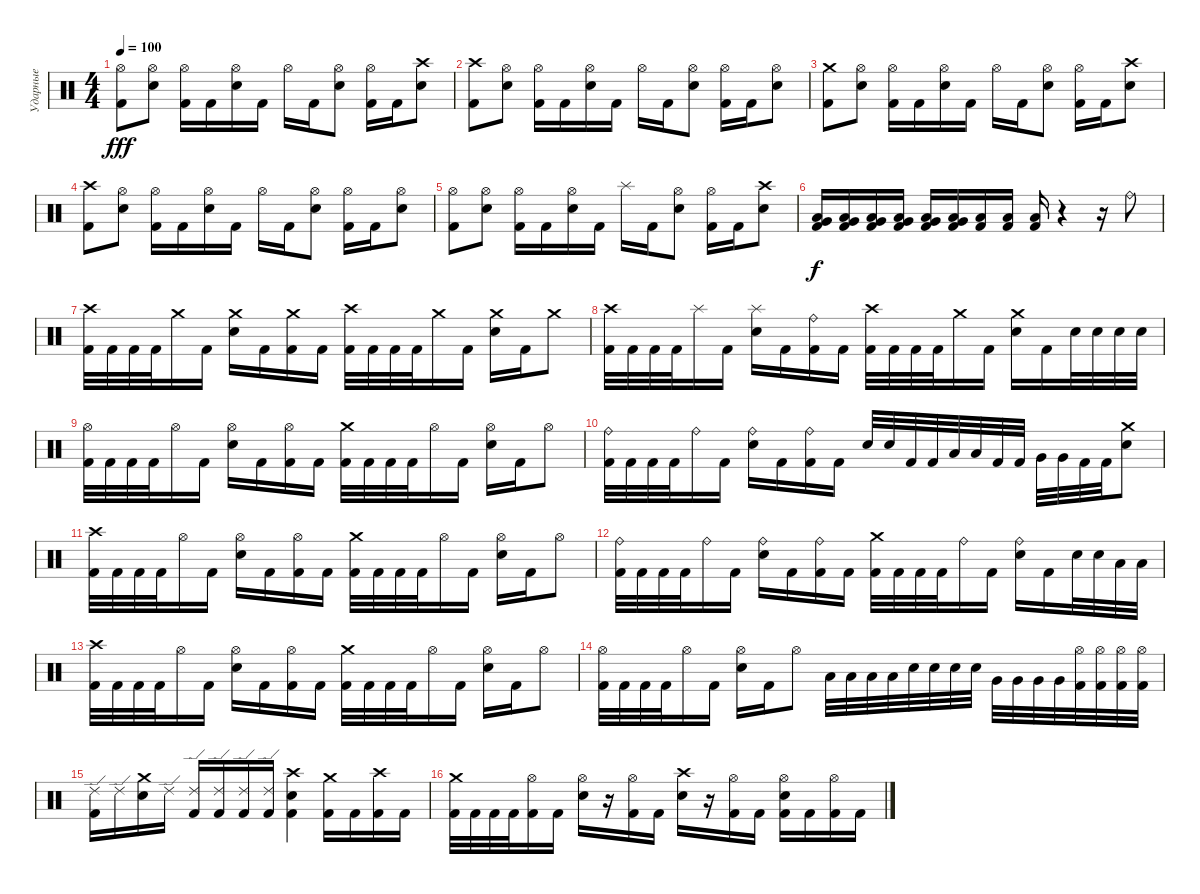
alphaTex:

\track ("Ударные" "Ударные") {instrument percussion}
\staff {score}
\articulation defaults
\ts (4 4)
\tempo 100
\clef neutral
\ks c
("Hi-Hat (open)" "Kick (hit) 2").8{dy fff} ("Hi-Hat (open)" "Snare (hit) 2").8 ("Hi-Hat (open)" "Kick (hit) 2").16 "Kick (hit) 2".16 ("Hi-Hat (open)" "Snare (hit) 2").16 "Kick (hit) 2".16 "Hi-Hat (open)".16 "Kick (hit) 2".16 ("Hi-Hat (open)" "Snare (hit) 2").8 ("Hi-Hat (open)" "Kick (hit) 2").16 "Kick (hit) 2".16 ("Crash high (hit)" "Snare (hit) 2").8 |
("Crash high (hit)" "Kick (hit) 2").8 ("Hi-Hat (open)" "Snare (hit) 2").8 ("Hi-Hat (open)" "Kick (hit) 2").16 "Kick (hit) 2".16 ("Hi-Hat (open)" "Snare (hit) 2").16 "Kick (hit) 2".16 "Hi-Hat (open)".16 "Kick (hit) 2".16 ("Hi-Hat (open)" "Snare (hit) 2").8 ("Hi-Hat (open)" "Kick (hit) 2").16 "Kick (hit) 2".16 ("Hi-Hat (open)" "Snare (hit) 2").8 |
("Crash medium (hit)" "Kick (hit) 2").8 ("Hi-Hat (open)" "Snare (hit) 2").8 ("Hi-Hat (open)" "Kick (hit) 2").16 "Kick (hit) 2".16 ("Hi-Hat (open)" "Snare (hit) 2").16 "Kick (hit) 2".16 "Hi-Hat (open)".16 "Kick (hit) 2".16 ("Hi-Hat (open)" "Snare (hit) 2").8 ("Hi-Hat (open)" "Kick (hit) 2").16 "Kick (hit) 2".16 ("Crash high (hit)" "Snare (hit) 2").8 |
("Crash high (hit)" "Kick (hit) 2").8 ("Hi-Hat (open)" "Snare (hit) 2").8 ("Hi-Hat (open)" "Kick (hit) 2").16 "Kick (hit) 2".16 ("Hi-Hat (open)" "Snare (hit) 2").16 "Kick (hit) 2".16 "Hi-Hat (open)".16 "Kick (hit) 2".16 ("Hi-Hat (open)" "Snare (hit) 2").8 ("Hi-Hat (open)" "Kick (hit) 2").16 "Kick (hit) 2".16 ("Hi-Hat (open)" "Snare (hit) 2").8 |
("Hi-Hat (open)" "Kick (hit) 2").8 ("Hi-Hat (open)" "Snare (hit) 2").8 ("Hi-Hat (open)" "Kick (hit) 2").16 "Kick (hit) 2".16 ("Hi-Hat (open)" "Snare (hit) 2").16 "Kick (hit) 2".16 "Splash (hit)".16 "Kick (hit) 2".16 ("Hi-Hat (open)" "Snare (hit) 2").8 ("Hi-Hat (open)" "Kick (hit) 2").16 "Kick (hit) 2".16 ("Crash high (hit)" "Snare (hit) 2").8 |
("Very Low Tom (hit)" "Low Floor Tom (hit)" "Kick (hit) 2").16{dy f} ("Very Low Tom (hit)" "Low Floor Tom (hit)" "Kick (hit) 2").16 ("Very Low Tom (hit)" "Low Floor Tom (hit)" "Kick (hit) 2").16 ("Very Low Tom (hit)" "Low Floor Tom (hit)" "Kick (hit) 2").16 ("Very Low Tom (hit)" "Low Floor Tom (hit)" "Kick (hit) 2").16 ("Very Low Tom (hit)" "Low Floor Tom (hit)" "Kick (hit) 2").16 ("Low Floor Tom (hit)" "Kick (hit) 2").16 ("Low Floor Tom (hit)" "Kick (hit) 2").16 ("Low Floor Tom (hit)" "Kick (hit) 2").16 r.4 r.16 "Ride (bell)".8 |
("Crash high (hit)" "Kick (hit) 2").32 "Kick (hit) 2".32 "Kick (hit) 2".32 "Kick (hit) 2".32 "Crash medium (hit)".16 "Kick (hit) 2".16 ("Crash medium (hit)" "Snare (hit) 2").16 "Kick (hit) 2".16 ("Crash medium (hit)" "Kick (hit) 2").16 "Kick (hit) 2".16 ("Crash high (hit)" "Kick (hit) 2").32 "Kick (hit) 2".32 "Kick (hit) 2".32 "Kick (hit) 2".32 "Crash medium (hit)".16 "Kick (hit) 2".16 ("Crash medium (hit)" "Snare (hit) 2").16 "Kick (hit) 2".16 "Crash medium (hit)".8 |
("Crash high (hit)" "Kick (hit) 2").32 "Kick (hit) 2".32 "Kick (hit) 2".32 "Kick (hit) 2".32 "Splash (hit)".16 "Kick (hit) 2".16 ("Splash (hit)" "Snare (hit) 2").16 "Kick (hit) 2".16 ("Ride (bell)" "Kick (hit) 2").16 "Kick (hit) 2".16 ("Crash high (hit)" "Kick (hit) 2").32 "Kick (hit) 2".32 "Kick (hit) 2".32 "Kick (hit) 2".32 "Crash medium (hit)".16 "Kick (hit) 2".16 ("Crash medium (hit)" "Snare (hit) 2").16 "Kick (hit) 2".16 "Snare (hit) 2".32 "Snare (hit) 2".32 "Snare (hit) 2".32 "Snare (hit) 2".32 |
("Hi-Hat (open)" "Kick (hit) 2").32 "Kick (hit) 2".32 "Kick (hit) 2".32 "Kick (hit) 2".32 "Hi-Hat (open)".16 "Kick (hit) 2".16 ("Hi-Hat (open)" "Snare (hit) 2").16 "Kick (hit) 2".16 ("Hi-Hat (open)" "Kick (hit) 2").16 "Kick (hit) 2".16 ("Crash medium (hit)" "Kick (hit) 2").32 "Kick (hit) 2".32 "Kick (hit) 2".32 "Kick (hit) 2".32 "Hi-Hat (open)".16 "Kick (hit) 2".16 ("Hi-Hat (open)" "Snare (hit) 2").16 "Kick (hit) 2".16 "Hi-Hat (open)".8 |
("Ride (bell)" "Kick (hit) 2").32 "Kick (hit) 2".32 "Kick (hit) 2".32 "Kick (hit) 2".32 "Ride (bell)".16 "Kick (hit) 2".16 ("Ride (bell)" "Snare (hit) 2").16 "Kick (hit) 2".16 ("Ride (bell)" "Kick (hit) 2").16 "Kick (hit) 2".16 "Snare (hit) 2".32 "Snare (hit) 2".32 "Kick (hit) 2".32 "Kick (hit) 2".32 "Low Floor Tom (hit)".32 "Low Floor Tom (hit)".32 "Kick (hit) 2".32 "Kick (hit) 2".32 "Very Low Tom (hit)".32 "Very Low Tom (hit)".32 "Kick (hit) 2".32 "Kick (hit) 2".32 ("Snare (hit) 2" "Crash medium (hit)").8 |
("Crash high (hit)" "Kick (hit) 2").32 "Kick (hit) 2".32 "Kick (hit) 2".32 "Kick (hit) 2".32 "Hi-Hat (open)".16 "Kick (hit) 2".16 ("Hi-Hat (open)" "Snare (hit) 2").16 "Kick (hit) 2".16 ("Hi-Hat (open)" "Kick (hit) 2").16 "Kick (hit) 2".16 ("Crash medium (hit)" "Kick (hit) 2").32 "Kick (hit) 2".32 "Kick (hit) 2".32 "Kick (hit) 2".32 "Hi-Hat (open)".16 "Kick (hit) 2".16 ("Hi-Hat (open)" "Snare (hit) 2").16 "Kick (hit) 2".16 "Hi-Hat (open)".8 |
("Ride (bell)" "Kick (hit) 2").32 "Kick (hit) 2".32 "Kick (hit) 2".32 "Kick (hit) 2".32 "Ride (bell)".16 "Kick (hit) 2".16 ("Ride (bell)" "Snare (hit) 2").16 "Kick (hit) 2".16 ("Ride (bell)" "Kick (hit) 2").16 "Kick (hit) 2".16 ("Crash medium (hit)" "Kick (hit) 2").32 "Kick (hit) 2".32 "Kick (hit) 2".32 "Kick (hit) 2".32 "Ride (bell)".16 "Kick (hit) 2".16 ("Ride (bell)" "Snare (hit) 2").16 "Kick (hit) 2".16 "Snare (hit) 2".32 "Snare (hit) 2".32 "Low Floor Tom (hit)".32 "Low Floor Tom (hit)".32 |
("Crash high (hit)" "Kick (hit) 2").32 "Kick (hit) 2".32 "Kick (hit) 2".32 "Kick (hit) 2".32 "Hi-Hat (open)".16 "Kick (hit) 2".16 ("Hi-Hat (open)" "Snare (hit) 2").16 "Kick (hit) 2".16 ("Hi-Hat (open)" "Kick (hit) 2").16 "Kick (hit) 2".16 ("Crash medium (hit)" "Kick (hit) 2").32 "Kick (hit) 2".32 "Kick (hit) 2".32 "Kick (hit) 2".32 "Hi-Hat (open)".16 "Kick (hit) 2".16 ("Hi-Hat (open)" "Snare (hit) 2").16 "Kick (hit) 2".16 "Hi-Hat (open)".8 |
("Hi-Hat (open)" "Kick (hit) 2").32 "Kick (hit) 2".32 "Kick (hit) 2".32 "Kick (hit) 2".32 "Hi-Hat (open)".16 "Kick (hit) 2".16 ("Hi-Hat (open)" "Snare (hit) 2").16 "Kick (hit) 2".16 "Hi-Hat (open)".8 "Low Tom (hit)".32 "Low Tom (hit)".32 "Low Tom (hit)".32 "Low Tom (hit)".32 "Snare (hit) 2".32 "Snare (hit) 2".32 "Snare (hit) 2".32 "Snare (hit) 2".32 "Very Low Tom (hit)".32 "Very Low Tom (hit)".32 "Very Low Tom (hit)".32 "Very Low Tom (hit)".32 ("Kick (hit) 2" "Hi-Hat (open)").32 ("Kick (hit) 2" "Hi-Hat (open)").32 ("Kick (hit) 2" "Hi-Hat (open)").32 ("Kick (hit) 2" "Hi-Hat (open)").32 |
("Ride (edge) 2" "Kick (hit) 2").16 "Ride (edge) 2".16 ("Crash medium (hit)" "Snare (hit) 2").16 "Ride (edge) 2".16 ("Ride (edge) 2" "Kick (hit) 2").16 ("Ride (edge) 2" "Kick (hit) 2").16 ("Ride (edge) 2" "Kick (hit) 2").16 ("Ride (edge) 2" "Kick (hit) 2").16 ("Snare (hit) 2" "Crash high (hit)" "Kick (hit) 2").4 ("Crash medium (hit)" "Kick (hit) 2").16 "Kick (hit) 2".16 ("Crash high (hit)" "Kick (hit) 2").16 "Kick (hit) 2".16 |
("Crash medium (hit)" "Kick (hit) 2").32 "Kick (hit) 2".32 "Kick (hit) 2".32 "Kick (hit) 2".32 ("Hi-Hat (open)" "Kick (hit) 2").16 "Kick (hit) 2".16 ("Hi-Hat (open)" "Snare (hit) 2").16 r.16 ("Hi-Hat (open)" "Kick (hit) 2").16 "Kick (hit) 2".16 ("Crash high (hit)" "Snare (hit) 2").16 r.16 ("Hi-Hat (open)" "Kick (hit) 2").16 "Kick (hit) 2".16 ("Hi-Hat (open)" "Snare (hit) 2" "Kick (hit) 2").16 "Kick (hit) 2".16 ("Hi-Hat (open)" "Kick (hit) 2").16 "Kick (hit) 2".16
